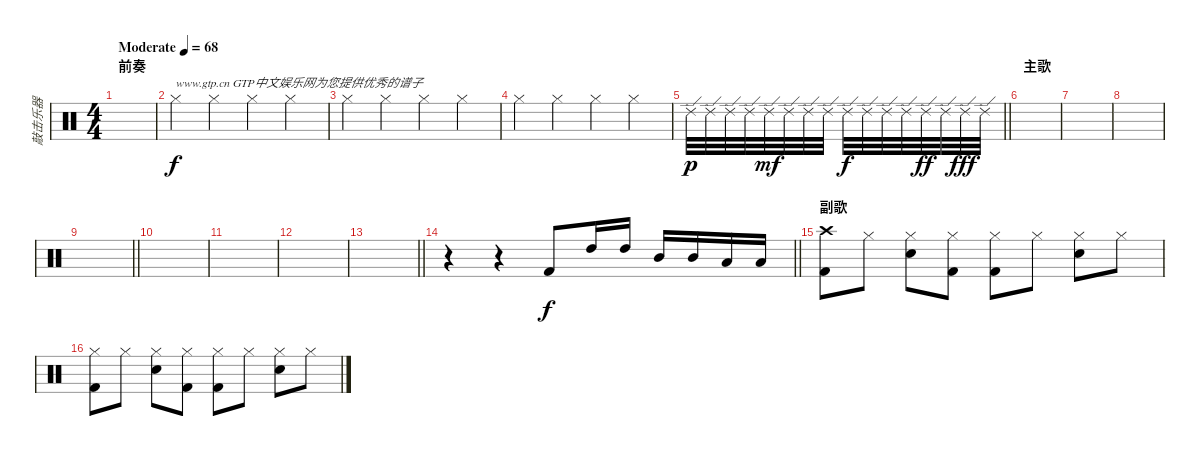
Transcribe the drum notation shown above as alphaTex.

\track ("敲击乐器" "敲击乐器") {instrument percussion}
\staff {score}
\articulation defaults
\ts (4 4)
\section ("" "前奏")
\tempo (68 "Moderate")
\clef neutral
\ks c
|
"Hi-Hat (closed)".4{txt "www.gtp.cn GTP中文娱乐网为您提供优秀的谱子"} "Hi-Hat (closed)".4 "Hi-Hat (closed)".4 "Hi-Hat (closed)".4 |
"Hi-Hat (closed)".4 "Hi-Hat (closed)".4 "Hi-Hat (closed)".4 "Hi-Hat (closed)".4 |
"Hi-Hat (closed)".4 "Hi-Hat (closed)".4 "Hi-Hat (closed)".4 "Hi-Hat (closed)".4 |
\barLineRight lightlight "Ride (edge) 2".32{dy p} "Ride (edge) 2".32 "Ride (edge) 2".32 "Ride (edge) 2".32 "Ride (edge) 2".32{dy mf} "Ride (edge) 2".32 "Ride (edge) 2".32 "Ride (edge) 2".32 "Ride (edge) 2".32{dy f} "Ride (edge) 2".32 "Ride (edge) 2".32 "Ride (edge) 2".32 "Ride (edge) 2".32{dy ff} "Ride (edge) 2".32 "Ride (edge) 2".32{dy fff} "Ride (edge) 2".32
|
\section ("" "主歌")
|
|
|
\barLineRight lightlight
|
|
|
|
\barLineRight lightlight
|
\barLineRight lightlight
r.4 r.4 "Kick (hit) 2".8{dy f} "High Tom (hit)".16 "High Tom (hit)".16 "Mid Tom (hit)".16 "Mid Tom (hit)".16 "Low Tom (hit)".16 "Low Tom (hit)".16 |
\section ("" "副歌")
("Crash high (hit)" "Kick (hit) 2").8 "Hi-Hat (closed)".8 ("Hi-Hat (closed)" "Snare (hit) 2").8 ("Hi-Hat (closed)" "Kick (hit) 2").8 ("Hi-Hat (closed)" "Kick (hit) 2").8 "Hi-Hat (closed)".8 ("Hi-Hat (closed)" "Snare (hit) 2").8 "Hi-Hat (closed)".8 |
("Hi-Hat (closed)" "Kick (hit) 2").8 "Hi-Hat (closed)".8 ("Hi-Hat (closed)" "Snare (hit) 2").8 ("Hi-Hat (closed)" "Kick (hit) 2").8 ("Hi-Hat (closed)" "Kick (hit) 2").8 "Hi-Hat (closed)".8 ("Hi-Hat (closed)" "Snare (hit) 2").8 "Hi-Hat (closed)".8
